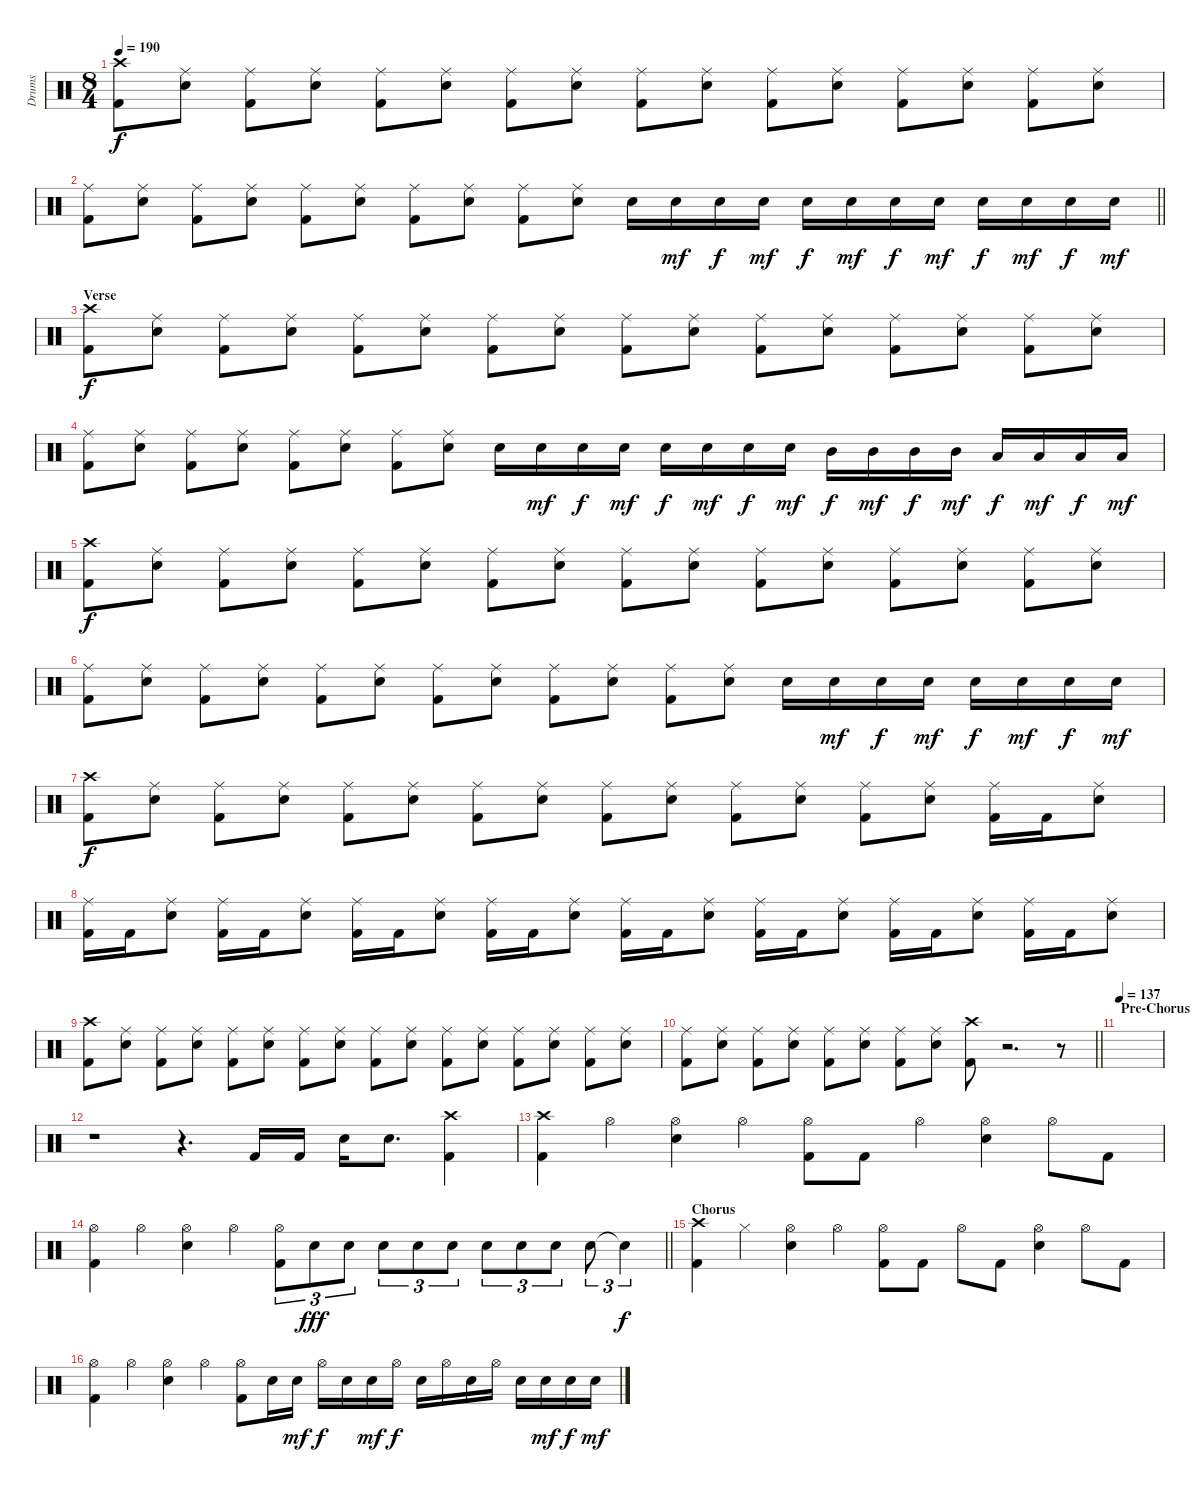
\track ("Drums" "Drums") {instrument percussion}
\staff {score}
\articulation defaults
\ts (8 4)
\tempo 190
\clef neutral
\ks c
("Crash high (hit)" "Kick (hit) 2").8{dy f} ("Ride (middle)" "Snare (hit) 2").8 ("Ride (middle)" "Kick (hit) 2").8 ("Ride (middle)" "Snare (hit) 2").8 ("Ride (middle)" "Kick (hit) 2").8 ("Ride (middle)" "Snare (hit) 2").8 ("Ride (middle)" "Kick (hit) 2").8 ("Ride (middle)" "Snare (hit) 2").8 ("Ride (middle)" "Kick (hit) 2").8 ("Ride (middle)" "Snare (hit) 2").8 ("Ride (middle)" "Kick (hit) 2").8 ("Ride (middle)" "Snare (hit) 2").8 ("Ride (middle)" "Kick (hit) 2").8 ("Ride (middle)" "Snare (hit) 2").8 ("Ride (middle)" "Kick (hit) 2").8 ("Ride (middle)" "Snare (hit) 2").8 |
\barLineRight lightlight
("Ride (middle)" "Kick (hit) 2").8 ("Ride (middle)" "Snare (hit) 2").8 ("Ride (middle)" "Kick (hit) 2").8 ("Ride (middle)" "Snare (hit) 2").8 ("Ride (middle)" "Kick (hit) 2").8 ("Ride (middle)" "Snare (hit) 2").8 ("Ride (middle)" "Kick (hit) 2").8 ("Ride (middle)" "Snare (hit) 2").8 ("Ride (middle)" "Kick (hit) 2").8 ("Ride (middle)" "Snare (hit) 2").8 "Snare (hit) 2".16 "Snare (hit) 2".16{dy mf} "Snare (hit) 2".16{dy f} "Snare (hit) 2".16{dy mf} "Snare (hit) 2".16{dy f} "Snare (hit) 2".16{dy mf} "Snare (hit) 2".16{dy f} "Snare (hit) 2".16{dy mf} "Snare (hit) 2".16{dy f} "Snare (hit) 2".16{dy mf} "Snare (hit) 2".16{dy f} "Snare (hit) 2".16{dy mf} |
\section ("" "Verse")
("Crash high (hit)" "Kick (hit) 2").8{dy f} ("Ride (middle)" "Snare (hit) 2").8 ("Ride (middle)" "Kick (hit) 2").8 ("Ride (middle)" "Snare (hit) 2").8 ("Ride (middle)" "Kick (hit) 2").8 ("Ride (middle)" "Snare (hit) 2").8 ("Ride (middle)" "Kick (hit) 2").8 ("Ride (middle)" "Snare (hit) 2").8 ("Ride (middle)" "Kick (hit) 2").8 ("Ride (middle)" "Snare (hit) 2").8 ("Ride (middle)" "Kick (hit) 2").8 ("Ride (middle)" "Snare (hit) 2").8 ("Ride (middle)" "Kick (hit) 2").8 ("Ride (middle)" "Snare (hit) 2").8 ("Ride (middle)" "Kick (hit) 2").8 ("Ride (middle)" "Snare (hit) 2").8 |
("Ride (middle)" "Kick (hit) 2").8 ("Ride (middle)" "Snare (hit) 2").8 ("Ride (middle)" "Kick (hit) 2").8 ("Ride (middle)" "Snare (hit) 2").8 ("Ride (middle)" "Kick (hit) 2").8 ("Ride (middle)" "Snare (hit) 2").8 ("Ride (middle)" "Kick (hit) 2").8 ("Ride (middle)" "Snare (hit) 2").8 "Snare (hit) 2".16 "Snare (hit) 2".16{dy mf} "Snare (hit) 2".16{dy f} "Snare (hit) 2".16{dy mf} "Snare (hit) 2".16{dy f} "Snare (hit) 2".16{dy mf} "Snare (hit) 2".16{dy f} "Snare (hit) 2".16{dy mf} "Mid Tom (hit)".16{dy f} "Mid Tom (hit)".16{dy mf} "Mid Tom (hit)".16{dy f} "Mid Tom (hit)".16{dy mf} "Low Tom (hit)".16{dy f} "Low Tom (hit)".16{dy mf} "Low Tom (hit)".16{dy f} "Low Tom (hit)".16{dy mf} |
("Crash high (hit)" "Kick (hit) 2").8{dy f} ("Ride (middle)" "Snare (hit) 2").8 ("Ride (middle)" "Kick (hit) 2").8 ("Ride (middle)" "Snare (hit) 2").8 ("Ride (middle)" "Kick (hit) 2").8 ("Ride (middle)" "Snare (hit) 2").8 ("Ride (middle)" "Kick (hit) 2").8 ("Ride (middle)" "Snare (hit) 2").8 ("Ride (middle)" "Kick (hit) 2").8 ("Ride (middle)" "Snare (hit) 2").8 ("Ride (middle)" "Kick (hit) 2").8 ("Ride (middle)" "Snare (hit) 2").8 ("Ride (middle)" "Kick (hit) 2").8 ("Ride (middle)" "Snare (hit) 2").8 ("Ride (middle)" "Kick (hit) 2").8 ("Ride (middle)" "Snare (hit) 2").8 |
("Ride (middle)" "Kick (hit) 2").8 ("Ride (middle)" "Snare (hit) 2").8 ("Ride (middle)" "Kick (hit) 2").8 ("Ride (middle)" "Snare (hit) 2").8 ("Ride (middle)" "Kick (hit) 2").8 ("Ride (middle)" "Snare (hit) 2").8 ("Ride (middle)" "Kick (hit) 2").8 ("Ride (middle)" "Snare (hit) 2").8 ("Ride (middle)" "Kick (hit) 2").8 ("Ride (middle)" "Snare (hit) 2").8 ("Ride (middle)" "Kick (hit) 2").8 ("Ride (middle)" "Snare (hit) 2").8 "Snare (hit) 2".16 "Snare (hit) 2".16{dy mf} "Snare (hit) 2".16{dy f} "Snare (hit) 2".16{dy mf} "Snare (hit) 2".16{dy f} "Snare (hit) 2".16{dy mf} "Snare (hit) 2".16{dy f} "Snare (hit) 2".16{dy mf} |
("Crash high (hit)" "Kick (hit) 2").8{dy f} ("Ride (middle)" "Snare (hit) 2").8 ("Ride (middle)" "Kick (hit) 2").8 ("Ride (middle)" "Snare (hit) 2").8 ("Ride (middle)" "Kick (hit) 2").8 ("Ride (middle)" "Snare (hit) 2").8 ("Ride (middle)" "Kick (hit) 2").8 ("Ride (middle)" "Snare (hit) 2").8 ("Ride (middle)" "Kick (hit) 2").8 ("Ride (middle)" "Snare (hit) 2").8 ("Ride (middle)" "Kick (hit) 2").8 ("Ride (middle)" "Snare (hit) 2").8 ("Ride (middle)" "Kick (hit) 2").8 ("Ride (middle)" "Snare (hit) 2").8 ("Ride (middle)" "Kick (hit) 2").16 "Kick (hit) 2".16 ("Ride (middle)" "Snare (hit) 2").8 |
("Ride (middle)" "Kick (hit) 2").16 "Kick (hit) 2".16 ("Ride (middle)" "Snare (hit) 2").8 ("Ride (middle)" "Kick (hit) 2").16 "Kick (hit) 2".16 ("Ride (middle)" "Snare (hit) 2").8 ("Ride (middle)" "Kick (hit) 2").16 "Kick (hit) 2".16 ("Ride (middle)" "Snare (hit) 2").8 ("Ride (middle)" "Kick (hit) 2").16 "Kick (hit) 2".16 ("Ride (middle)" "Snare (hit) 2").8 ("Ride (middle)" "Kick (hit) 2").16 "Kick (hit) 2".16 ("Ride (middle)" "Snare (hit) 2").8 ("Ride (middle)" "Kick (hit) 2").16 "Kick (hit) 2".16 ("Ride (middle)" "Snare (hit) 2").8 ("Ride (middle)" "Kick (hit) 2").16 "Kick (hit) 2".16 ("Ride (middle)" "Snare (hit) 2").8 ("Ride (middle)" "Kick (hit) 2").16 "Kick (hit) 2".16 ("Ride (middle)" "Snare (hit) 2").8 |
("Crash high (hit)" "Kick (hit) 2").8 ("Ride (middle)" "Snare (hit) 2").8 ("Ride (middle)" "Kick (hit) 2").8 ("Ride (middle)" "Snare (hit) 2").8 ("Ride (middle)" "Kick (hit) 2").8 ("Ride (middle)" "Snare (hit) 2").8 ("Ride (middle)" "Kick (hit) 2").8 ("Ride (middle)" "Snare (hit) 2").8 ("Ride (middle)" "Kick (hit) 2").8 ("Ride (middle)" "Snare (hit) 2").8 ("Ride (middle)" "Kick (hit) 2").8 ("Ride (middle)" "Snare (hit) 2").8 ("Ride (middle)" "Kick (hit) 2").8 ("Ride (middle)" "Snare (hit) 2").8 ("Ride (middle)" "Kick (hit) 2").8 ("Ride (middle)" "Snare (hit) 2").8 |
\barLineRight lightlight
("Ride (middle)" "Kick (hit) 2").8 ("Ride (middle)" "Snare (hit) 2").8 ("Ride (middle)" "Kick (hit) 2").8 ("Ride (middle)" "Snare (hit) 2").8 ("Ride (middle)" "Kick (hit) 2").8 ("Ride (middle)" "Snare (hit) 2").8 ("Ride (middle)" "Kick (hit) 2").8 ("Ride (middle)" "Snare (hit) 2").8 ("Crash high (hit)" "Kick (hit) 2").8 r.2{d} r.8 |
\section ("" "Pre-Chorus")
\tempo 137
|
r.1 r.4{d} "Kick (hit) 2".16 "Kick (hit) 2".16 "Snare (hit) 2".16 "Snare (hit) 2".8{d} ("Crash high (hit)" "Kick (hit) 2").4 |
("Crash high (hit)" "Kick (hit) 2").4 "Hi-Hat (open)".4 ("Hi-Hat (open)" "Snare (hit) 2").4 "Hi-Hat (open)".4 ("Hi-Hat (open)" "Kick (hit) 2").8 "Kick (hit) 2".8 "Hi-Hat (open)".4 ("Hi-Hat (open)" "Snare (hit) 2").4 "Hi-Hat (open)".8 "Kick (hit) 2".8 |
\barLineRight lightlight
("Hi-Hat (open)" "Kick (hit) 2").4 "Hi-Hat (open)".4 ("Hi-Hat (open)" "Snare (hit) 2").4 "Hi-Hat (open)".4 ("Hi-Hat (open)" "Kick (hit) 2").8{tu (3 2)} "Snare (hit) 2".8{tu (3 2) dy fff} "Snare (hit) 2".8{tu (3 2)} "Snare (hit) 2".8{tu (3 2)} "Snare (hit) 2".8{tu (3 2)} "Snare (hit) 2".8{tu (3 2)} "Snare (hit) 2".8{tu (3 2)} "Snare (hit) 2".8{tu (3 2)} "Snare (hit) 2".8{tu (3 2)} "Snare (hit) 2".8{tu (3 2)} "Snare (hit)"{t}.4{tu (3 2) dy f} |
\section ("" "Chorus")
("Crash high (hit)" "Kick (hit) 2").4 "Hi-Hat (closed)".4 ("Hi-Hat (open)" "Snare (hit) 2").4 "Hi-Hat (open)".4 ("Hi-Hat (open)" "Kick (hit) 2").8 "Kick (hit) 2".8 "Hi-Hat (open)".8 "Kick (hit) 2".8 ("Hi-Hat (open)" "Snare (hit) 2").4 "Hi-Hat (open)".8 "Kick (hit) 2".8 |
("Hi-Hat (open)" "Kick (hit) 2").4 "Hi-Hat (open)".4 ("Hi-Hat (open)" "Snare (hit) 2").4 "Hi-Hat (open)".4 ("Hi-Hat (open)" "Kick (hit) 2").8 "Snare (hit) 2".16 "Snare (hit) 2".16{dy mf} "Hi-Hat (open)".16{dy f} "Snare (hit) 2".16 "Snare (hit) 2".16{dy mf} "Hi-Hat (open)".16{dy f} "Snare (hit) 2".16 "Hi-Hat (open)".16 "Snare (hit) 2".16 "Hi-Hat (open)".16 "Snare (hit) 2".16 "Snare (hit) 2".16{dy mf} "Snare (hit) 2".16{dy f} "Snare (hit) 2".16{dy mf}
